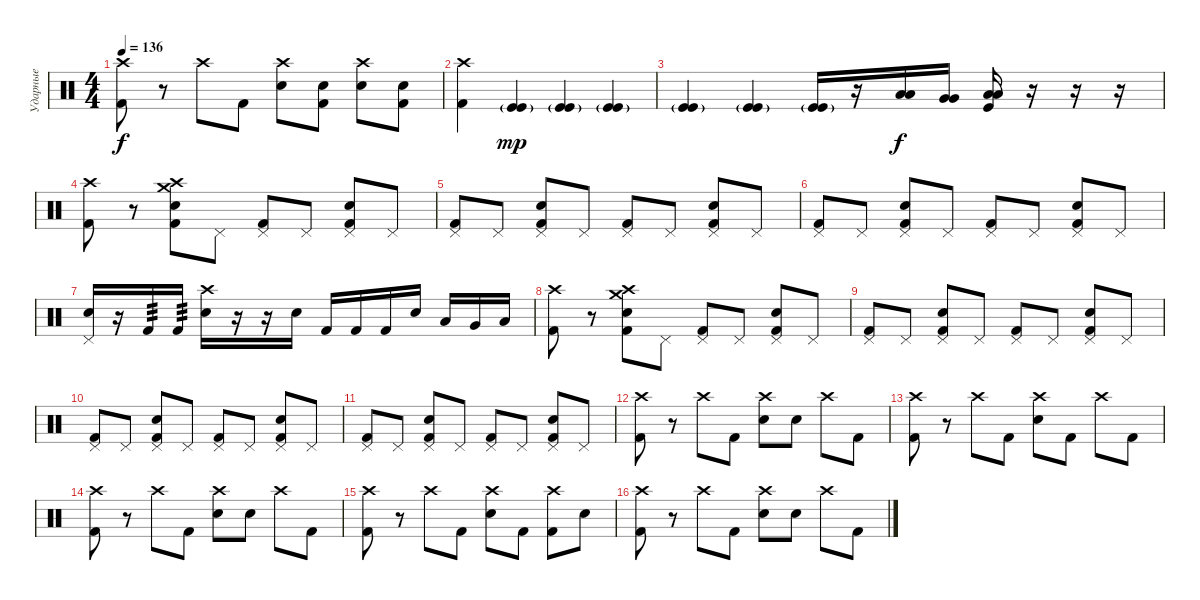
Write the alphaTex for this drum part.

\track ("Ударные" "Ударные") {instrument percussion}
\staff {score}
\articulation defaults
\ts (4 4)
\tempo 136
\clef neutral
\ks c
("Crash high (hit)" "Kick (hit) 2").8{dy f} r.8 "Crash high (hit)".8 "Kick (hit) 2".8 ("Crash high (hit)" "Snare (hit) 2").8 ("Snare (hit) 2" "Kick (hit) 2").8 ("Crash high (hit)" "Snare (hit) 2").8 ("Snare (hit) 2" "Kick (hit) 2").8 |
("Crash high (hit)" "Kick (hit) 2").4 ("Kick (hit)"{g} "Kick (hit)").4{dy mp} ("Kick (hit)"{g} "Kick (hit)").4 ("Kick (hit)"{g} "Kick (hit)").4 |
("Kick (hit)"{g} "Kick (hit)").4 ("Kick (hit)"{g} "Kick (hit)").4 ("Kick (hit)"{g} "Kick (hit)").16 r.16 ("Low Tom (hit)" "Low Tom (hit)").16{dy f} ("Very Low Tom (hit)" "Very Low Tom (hit)").16 ("Low Floor Tom (hit)" "Low Floor Tom (hit)" "Kick (hit)").16 r.16 r.16 r.16 |
("Crash high (hit)" "Kick (hit) 2").8 r.8 ("Crash medium (hit)" "Crash high (hit)" "Snare (hit) 2" "Kick (hit) 2").8 "Pedal Hi-Hat (hit)".8 ("Pedal Hi-Hat (hit)" "Kick (hit) 2").8 "Pedal Hi-Hat (hit)".8 ("Pedal Hi-Hat (hit)" "Snare (hit) 2" "Kick (hit) 2").8 "Pedal Hi-Hat (hit)".8 |
("Pedal Hi-Hat (hit)" "Kick (hit) 2").8 "Pedal Hi-Hat (hit)".8 ("Pedal Hi-Hat (hit)" "Snare (hit) 2" "Kick (hit) 2").8 "Pedal Hi-Hat (hit)".8 ("Pedal Hi-Hat (hit)" "Kick (hit) 2").8 "Pedal Hi-Hat (hit)".8 ("Pedal Hi-Hat (hit)" "Snare (hit) 2" "Kick (hit) 2").8 "Pedal Hi-Hat (hit)".8 |
("Pedal Hi-Hat (hit)" "Kick (hit) 2").8 "Pedal Hi-Hat (hit)".8 ("Pedal Hi-Hat (hit)" "Snare (hit) 2" "Kick (hit) 2").8 "Pedal Hi-Hat (hit)".8 ("Pedal Hi-Hat (hit)" "Kick (hit) 2").8 "Pedal Hi-Hat (hit)".8 ("Pedal Hi-Hat (hit)" "Snare (hit) 2" "Kick (hit) 2").8 "Pedal Hi-Hat (hit)".8 |
("Pedal Hi-Hat (hit)" "Snare (hit) 2").16 r.16 "Kick (hit) 2".16{tp 3} "Kick (hit) 2".16{tp 3} ("Crash high (hit)" "Snare (hit) 2").16 r.16 r.16 "Snare (hit) 2".16 "Kick (hit) 2".16 "Kick (hit) 2".16 "Kick (hit) 2".16 "Snare (hit) 2".16 "Low Tom (hit)".16 "Very Low Tom (hit)".16 "Low Floor Tom (hit)".16 |
("Crash high (hit)" "Kick (hit) 2").8 r.8 ("Crash medium (hit)" "Crash high (hit)" "Snare (hit) 2" "Kick (hit) 2").8 "Pedal Hi-Hat (hit)".8 ("Pedal Hi-Hat (hit)" "Kick (hit) 2").8 "Pedal Hi-Hat (hit)".8 ("Pedal Hi-Hat (hit)" "Snare (hit) 2" "Kick (hit) 2").8 "Pedal Hi-Hat (hit)".8 |
("Pedal Hi-Hat (hit)" "Kick (hit) 2").8 "Pedal Hi-Hat (hit)".8 ("Pedal Hi-Hat (hit)" "Snare (hit) 2" "Kick (hit) 2").8 "Pedal Hi-Hat (hit)".8 ("Pedal Hi-Hat (hit)" "Kick (hit) 2").8 "Pedal Hi-Hat (hit)".8 ("Pedal Hi-Hat (hit)" "Snare (hit) 2" "Kick (hit) 2").8 "Pedal Hi-Hat (hit)".8 |
("Pedal Hi-Hat (hit)" "Kick (hit) 2").8 "Pedal Hi-Hat (hit)".8 ("Pedal Hi-Hat (hit)" "Snare (hit) 2" "Kick (hit) 2").8 "Pedal Hi-Hat (hit)".8 ("Pedal Hi-Hat (hit)" "Kick (hit) 2").8 "Pedal Hi-Hat (hit)".8 ("Pedal Hi-Hat (hit)" "Snare (hit) 2" "Kick (hit) 2").8 "Pedal Hi-Hat (hit)".8 |
("Pedal Hi-Hat (hit)" "Kick (hit) 2").8 "Pedal Hi-Hat (hit)".8 ("Pedal Hi-Hat (hit)" "Snare (hit) 2" "Kick (hit) 2").8 "Pedal Hi-Hat (hit)".8 ("Pedal Hi-Hat (hit)" "Kick (hit) 2").8 "Pedal Hi-Hat (hit)".8 ("Pedal Hi-Hat (hit)" "Snare (hit) 2" "Kick (hit) 2").8 "Pedal Hi-Hat (hit)".8 |
("Crash high (hit)" "Kick (hit) 2").8 r.8 "Crash high (hit)".8 "Kick (hit) 2".8 ("Crash high (hit)" "Snare (hit) 2").8 "Snare (hit) 2".8 "Crash high (hit)".8 "Kick (hit) 2".8 |
("Crash high (hit)" "Kick (hit) 2").8 r.8 "Crash high (hit)".8 "Kick (hit) 2".8 ("Crash high (hit)" "Snare (hit) 2").8 "Kick (hit) 2".8 "Crash high (hit)".8 "Kick (hit) 2".8 |
("Crash high (hit)" "Kick (hit) 2").8 r.8 "Crash high (hit)".8 "Kick (hit) 2".8 ("Crash high (hit)" "Snare (hit) 2").8 "Snare (hit) 2".8 "Crash high (hit)".8 "Kick (hit) 2".8 |
("Crash high (hit)" "Kick (hit) 2").8 r.8 "Crash high (hit)".8 "Kick (hit) 2".8 ("Crash high (hit)" "Snare (hit) 2").8 "Kick (hit) 2".8 ("Crash high (hit)" "Kick (hit) 2").8 "Snare (hit) 2".8 |
("Crash high (hit)" "Kick (hit) 2").8 r.8 "Crash high (hit)".8 "Kick (hit) 2".8 ("Crash high (hit)" "Snare (hit) 2").8 "Snare (hit) 2".8 "Crash high (hit)".8 "Kick (hit) 2".8
